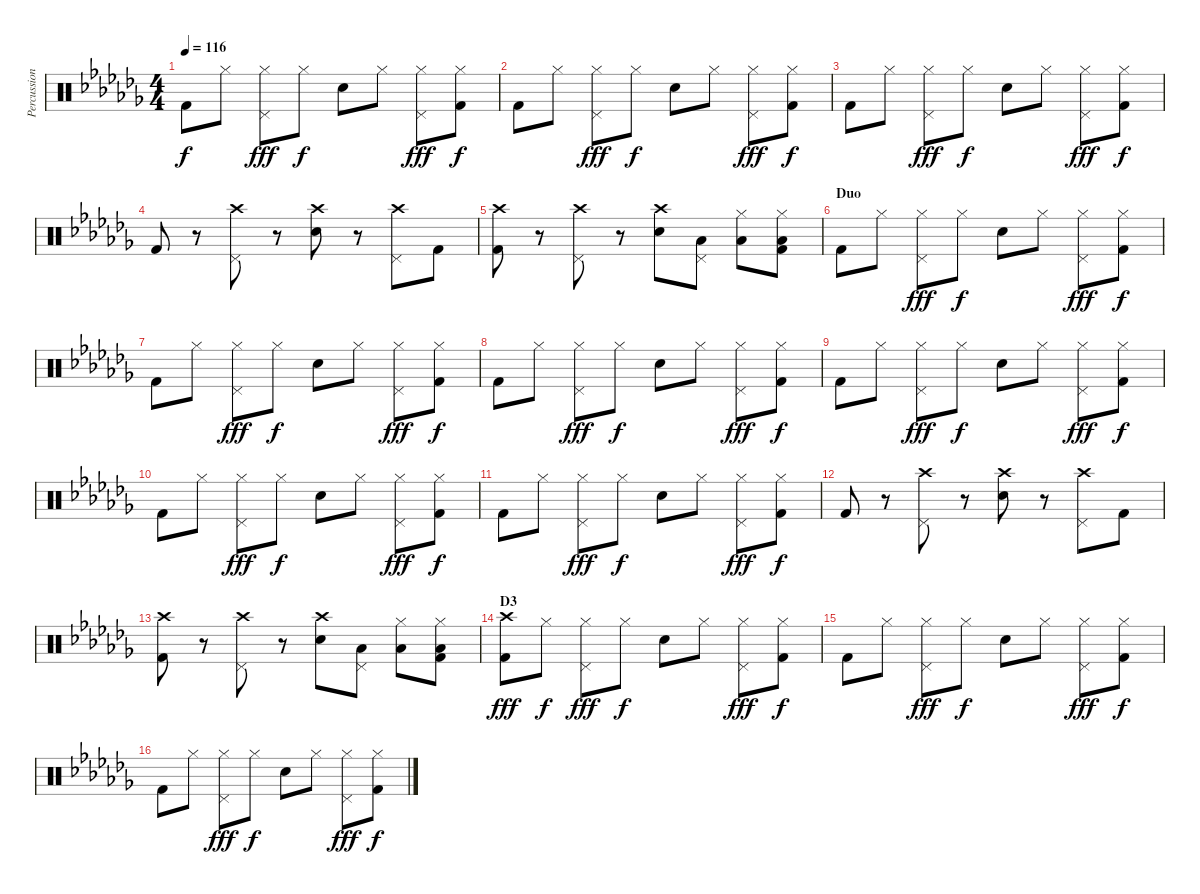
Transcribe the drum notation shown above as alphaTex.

\track ("Percussions" "Percussion") {instrument percussion}
\staff {score}
\articulation defaults
\ts (4 4)
\tempo 116
\clef neutral
\ks abminor "Kick (hit) 2".8{dy f} "Hi-Hat (closed)".8
("Hi-Hat (closed)" "Pedal Hi-Hat (hit)").8{dy fff} "Hi-Hat (closed)".8{dy f} "Snare (hit) 2".8 "Hi-Hat (closed)".8 ("Hi-Hat (closed)" "Pedal Hi-Hat (hit)").8{dy fff} ("Hi-Hat (closed)" "Kick (hit) 2").8{dy f} |
"Kick (hit) 2".8 "Hi-Hat (closed)".8 ("Hi-Hat (closed)" "Pedal Hi-Hat (hit)").8{dy fff} "Hi-Hat (closed)".8{dy f} "Snare (hit) 2".8 "Hi-Hat (closed)".8 ("Hi-Hat (closed)" "Pedal Hi-Hat (hit)").8{dy fff} ("Hi-Hat (closed)" "Kick (hit) 2").8{dy f} |
"Kick (hit) 2".8 "Hi-Hat (closed)".8 ("Hi-Hat (closed)" "Pedal Hi-Hat (hit)").8{dy fff} "Hi-Hat (closed)".8{dy f} "Snare (hit) 2".8 "Hi-Hat (closed)".8 ("Hi-Hat (closed)" "Pedal Hi-Hat (hit)").8{dy fff} ("Hi-Hat (closed)" "Kick (hit) 2").8{dy f} |
"Kick (hit) 2".8 r.8 ("Crash high (hit)" "Pedal Hi-Hat (hit)").8 r.8 ("Crash high (hit)" "Snare (hit) 2").8 r.8 ("Crash high (hit)" "Pedal Hi-Hat (hit)").8 "Kick (hit) 2".8 |
("Crash high (hit)" "Kick (hit) 2").8 r.8 ("Crash high (hit)" "Pedal Hi-Hat (hit)").8 r.8 ("Crash high (hit)" "Snare (hit) 2").8 ("Pedal Hi-Hat (hit)" "Low Floor Tom (hit)").8 ("Hi-Hat (closed)" "Low Tom (hit)").8 ("Hi-Hat (closed)" "Low Floor Tom (hit)" "Kick (hit) 2").8 |
\section ("" "Duo")
"Kick (hit) 2".8 "Hi-Hat (closed)".8 ("Hi-Hat (closed)" "Pedal Hi-Hat (hit)").8{dy fff} "Hi-Hat (closed)".8{dy f} "Snare (hit) 2".8 "Hi-Hat (closed)".8 ("Hi-Hat (closed)" "Pedal Hi-Hat (hit)").8{dy fff} ("Hi-Hat (closed)" "Kick (hit) 2").8{dy f} |
"Kick (hit) 2".8 "Hi-Hat (closed)".8 ("Hi-Hat (closed)" "Pedal Hi-Hat (hit)").8{dy fff} "Hi-Hat (closed)".8{dy f} "Snare (hit) 2".8 "Hi-Hat (closed)".8 ("Hi-Hat (closed)" "Pedal Hi-Hat (hit)").8{dy fff} ("Hi-Hat (closed)" "Kick (hit) 2").8{dy f} |
"Kick (hit) 2".8 "Hi-Hat (closed)".8 ("Hi-Hat (closed)" "Pedal Hi-Hat (hit)").8{dy fff} "Hi-Hat (closed)".8{dy f} "Snare (hit) 2".8 "Hi-Hat (closed)".8 ("Hi-Hat (closed)" "Pedal Hi-Hat (hit)").8{dy fff} ("Hi-Hat (closed)" "Kick (hit) 2").8{dy f} |
"Kick (hit) 2".8 "Hi-Hat (closed)".8 ("Hi-Hat (closed)" "Pedal Hi-Hat (hit)").8{dy fff} "Hi-Hat (closed)".8{dy f} "Snare (hit) 2".8 "Hi-Hat (closed)".8 ("Hi-Hat (closed)" "Pedal Hi-Hat (hit)").8{dy fff} ("Hi-Hat (closed)" "Kick (hit) 2").8{dy f} |
"Kick (hit) 2".8 "Hi-Hat (closed)".8 ("Hi-Hat (closed)" "Pedal Hi-Hat (hit)").8{dy fff} "Hi-Hat (closed)".8{dy f} "Snare (hit) 2".8 "Hi-Hat (closed)".8 ("Hi-Hat (closed)" "Pedal Hi-Hat (hit)").8{dy fff} ("Hi-Hat (closed)" "Kick (hit) 2").8{dy f} |
"Kick (hit) 2".8 "Hi-Hat (closed)".8 ("Hi-Hat (closed)" "Pedal Hi-Hat (hit)").8{dy fff} "Hi-Hat (closed)".8{dy f} "Snare (hit) 2".8 "Hi-Hat (closed)".8 ("Hi-Hat (closed)" "Pedal Hi-Hat (hit)").8{dy fff} ("Hi-Hat (closed)" "Kick (hit) 2").8{dy f} |
"Kick (hit) 2".8 r.8 ("Crash high (hit)" "Pedal Hi-Hat (hit)").8 r.8 ("Crash high (hit)" "Snare (hit) 2").8 r.8 ("Crash high (hit)" "Pedal Hi-Hat (hit)").8 "Kick (hit) 2".8 |
("Crash high (hit)" "Kick (hit) 2").8 r.8 ("Crash high (hit)" "Pedal Hi-Hat (hit)").8 r.8 ("Crash high (hit)" "Snare (hit) 2").8 ("Pedal Hi-Hat (hit)" "Low Floor Tom (hit)").8 ("Hi-Hat (closed)" "Low Tom (hit)").8 ("Hi-Hat (closed)" "Low Floor Tom (hit)" "Kick (hit) 2").8 |
\section ("" "D3")
("Crash high (hit)" "Kick (hit) 2").8{dy fff} "Hi-Hat (closed)".8{dy f} ("Hi-Hat (closed)" "Pedal Hi-Hat (hit)").8{dy fff} "Hi-Hat (closed)".8{dy f} "Snare (hit) 2".8 "Hi-Hat (closed)".8 ("Hi-Hat (closed)" "Pedal Hi-Hat (hit)").8{dy fff} ("Hi-Hat (closed)" "Kick (hit) 2").8{dy f} |
"Kick (hit) 2".8 "Hi-Hat (closed)".8 ("Hi-Hat (closed)" "Pedal Hi-Hat (hit)").8{dy fff} "Hi-Hat (closed)".8{dy f} "Snare (hit) 2".8 "Hi-Hat (closed)".8 ("Hi-Hat (closed)" "Pedal Hi-Hat (hit)").8{dy fff} ("Hi-Hat (closed)" "Kick (hit) 2").8{dy f} |
"Kick (hit) 2".8 "Hi-Hat (closed)".8 ("Hi-Hat (closed)" "Pedal Hi-Hat (hit)").8{dy fff} "Hi-Hat (closed)".8{dy f} "Snare (hit) 2".8 "Hi-Hat (closed)".8 ("Hi-Hat (closed)" "Pedal Hi-Hat (hit)").8{dy fff} ("Hi-Hat (closed)" "Kick (hit) 2").8{dy f}
